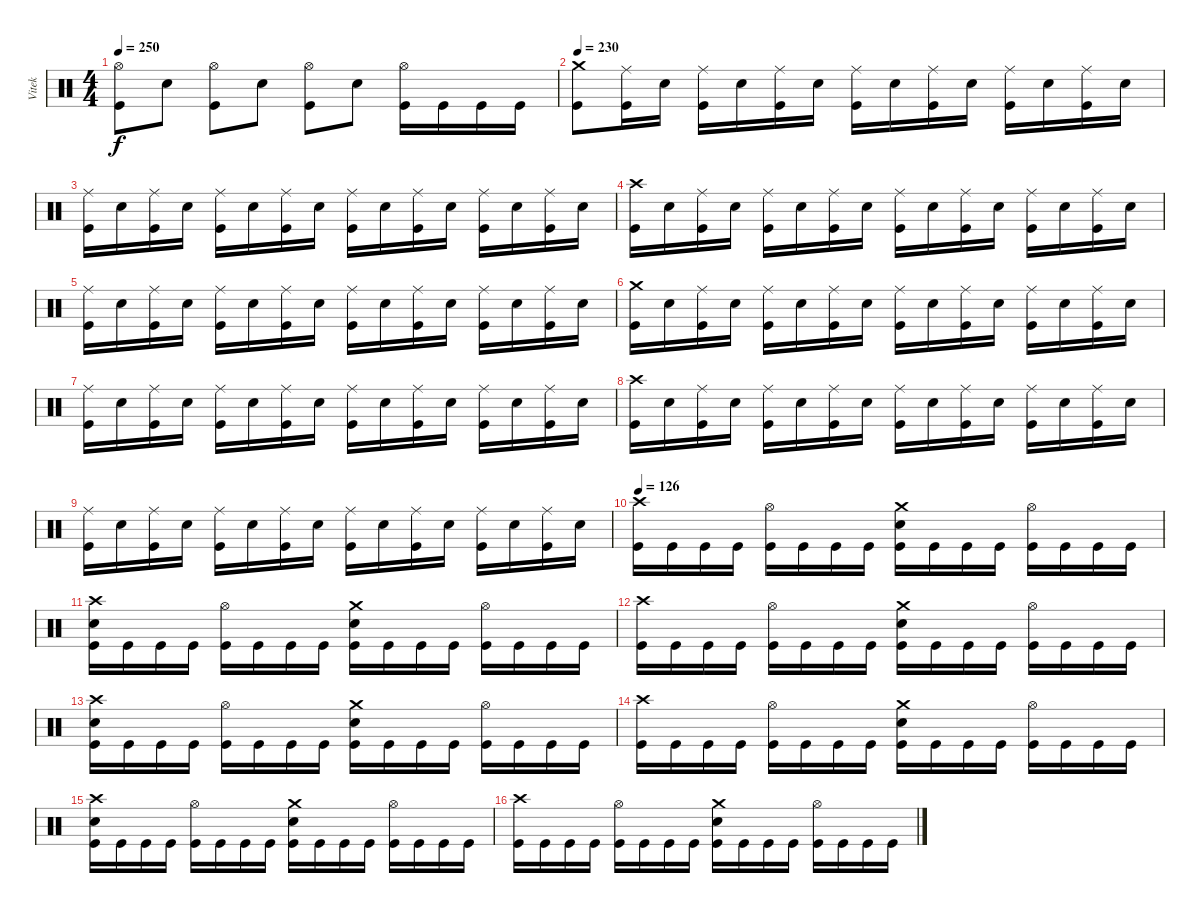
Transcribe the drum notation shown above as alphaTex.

\track ("Vitek" "Vitek") {instrument percussion}
\staff {score}
\articulation defaults
\ts (4 4)
\tempo 250
\clef neutral
\ks c
("Hi-Hat (open)" "Kick (hit)").8{dy f} "Snare (hit) 2".8 ("Hi-Hat (open)" "Kick (hit)").8 "Snare (hit) 2".8 ("Hi-Hat (open)" "Kick (hit)").8 "Snare (hit) 2".8 ("Hi-Hat (open)" "Kick (hit)").16 "Kick (hit)".16 "Kick (hit)".16 "Kick (hit)".16 |
\tempo 230
("Crash medium (hit)" "Kick (hit)").8 ("Ride (middle)" "Kick (hit)").16 "Snare (hit) 2".16 ("Ride (middle)" "Kick (hit)").16 "Snare (hit) 2".16 ("Ride (middle)" "Kick (hit)").16 "Snare (hit) 2".16 ("Ride (middle)" "Kick (hit)").16 "Snare (hit) 2".16 ("Ride (middle)" "Kick (hit)").16 "Snare (hit) 2".16 ("Ride (middle)" "Kick (hit)").16 "Snare (hit) 2".16 ("Ride (middle)" "Kick (hit)").16 "Snare (hit) 2".16 |
("Ride (middle)" "Kick (hit)").16 "Snare (hit) 2".16 ("Ride (middle)" "Kick (hit)").16 "Snare (hit) 2".16 ("Ride (middle)" "Kick (hit)").16 "Snare (hit) 2".16 ("Ride (middle)" "Kick (hit)").16 "Snare (hit) 2".16 ("Ride (middle)" "Kick (hit)").16 "Snare (hit) 2".16 ("Ride (middle)" "Kick (hit)").16 "Snare (hit) 2".16 ("Ride (middle)" "Kick (hit)").16 "Snare (hit) 2".16 ("Ride (middle)" "Kick (hit)").16 "Snare (hit) 2".16 |
("Crash high (hit)" "Kick (hit)").16 "Snare (hit) 2".16 ("Ride (middle)" "Kick (hit)").16 "Snare (hit) 2".16 ("Ride (middle)" "Kick (hit)").16 "Snare (hit) 2".16 ("Ride (middle)" "Kick (hit)").16 "Snare (hit) 2".16 ("Ride (middle)" "Kick (hit)").16 "Snare (hit) 2".16 ("Ride (middle)" "Kick (hit)").16 "Snare (hit) 2".16 ("Ride (middle)" "Kick (hit)").16 "Snare (hit) 2".16 ("Ride (middle)" "Kick (hit)").16 "Snare (hit) 2".16 |
("Ride (middle)" "Kick (hit)").16 "Snare (hit) 2".16 ("Ride (middle)" "Kick (hit)").16 "Snare (hit) 2".16 ("Ride (middle)" "Kick (hit)").16 "Snare (hit) 2".16 ("Ride (middle)" "Kick (hit)").16 "Snare (hit) 2".16 ("Ride (middle)" "Kick (hit)").16 "Snare (hit) 2".16 ("Ride (middle)" "Kick (hit)").16 "Snare (hit) 2".16 ("Ride (middle)" "Kick (hit)").16 "Snare (hit) 2".16 ("Ride (middle)" "Kick (hit)").16 "Snare (hit) 2".16 |
("Crash medium (hit)" "Kick (hit)").16 "Snare (hit) 2".16 ("Ride (middle)" "Kick (hit)").16 "Snare (hit) 2".16 ("Ride (middle)" "Kick (hit)").16 "Snare (hit) 2".16 ("Ride (middle)" "Kick (hit)").16 "Snare (hit) 2".16 ("Ride (middle)" "Kick (hit)").16 "Snare (hit) 2".16 ("Ride (middle)" "Kick (hit)").16 "Snare (hit) 2".16 ("Ride (middle)" "Kick (hit)").16 "Snare (hit) 2".16 ("Ride (middle)" "Kick (hit)").16 "Snare (hit) 2".16 |
("Ride (middle)" "Kick (hit)").16 "Snare (hit) 2".16 ("Ride (middle)" "Kick (hit)").16 "Snare (hit) 2".16 ("Ride (middle)" "Kick (hit)").16 "Snare (hit) 2".16 ("Ride (middle)" "Kick (hit)").16 "Snare (hit) 2".16 ("Ride (middle)" "Kick (hit)").16 "Snare (hit) 2".16 ("Ride (middle)" "Kick (hit)").16 "Snare (hit) 2".16 ("Ride (middle)" "Kick (hit)").16 "Snare (hit) 2".16 ("Ride (middle)" "Kick (hit)").16 "Snare (hit) 2".16 |
("Crash high (hit)" "Kick (hit)").16 "Snare (hit) 2".16 ("Ride (middle)" "Kick (hit)").16 "Snare (hit) 2".16 ("Ride (middle)" "Kick (hit)").16 "Snare (hit) 2".16 ("Ride (middle)" "Kick (hit)").16 "Snare (hit) 2".16 ("Ride (middle)" "Kick (hit)").16 "Snare (hit) 2".16 ("Ride (middle)" "Kick (hit)").16 "Snare (hit) 2".16 ("Ride (middle)" "Kick (hit)").16 "Snare (hit) 2".16 ("Ride (middle)" "Kick (hit)").16 "Snare (hit) 2".16 |
("Ride (middle)" "Kick (hit)").16 "Snare (hit) 2".16 ("Ride (middle)" "Kick (hit)").16 "Snare (hit) 2".16 ("Ride (middle)" "Kick (hit)").16 "Snare (hit) 2".16 ("Ride (middle)" "Kick (hit)").16 "Snare (hit) 2".16 ("Ride (middle)" "Kick (hit)").16 "Snare (hit) 2".16 ("Ride (middle)" "Kick (hit)").16 "Snare (hit) 2".16 ("Ride (middle)" "Kick (hit)").16 "Snare (hit) 2".16 ("Ride (middle)" "Kick (hit)").16 "Snare (hit) 2".16 |
\tempo 126
("Crash high (hit)" "Kick (hit)").16 "Kick (hit)".16 "Kick (hit)".16 "Kick (hit)".16 ("Hi-Hat (open)" "Kick (hit)").16 "Kick (hit)".16 "Kick (hit)".16 "Kick (hit)".16 ("Crash medium (hit)" "Snare (hit) 2" "Kick (hit)").16 "Kick (hit)".16 "Kick (hit)".16 "Kick (hit)".16 ("Hi-Hat (open)" "Kick (hit)").16 "Kick (hit)".16 "Kick (hit)".16 "Kick (hit)".16 |
("Crash high (hit)" "Snare (hit) 2" "Kick (hit)").16 "Kick (hit)".16 "Kick (hit)".16 "Kick (hit)".16 ("Hi-Hat (open)" "Kick (hit)").16 "Kick (hit)".16 "Kick (hit)".16 "Kick (hit)".16 ("Crash medium (hit)" "Snare (hit) 2" "Kick (hit)").16 "Kick (hit)".16 "Kick (hit)".16 "Kick (hit)".16 ("Hi-Hat (open)" "Kick (hit)").16 "Kick (hit)".16 "Kick (hit)".16 "Kick (hit)".16 |
("Crash high (hit)" "Kick (hit)").16 "Kick (hit)".16 "Kick (hit)".16 "Kick (hit)".16 ("Hi-Hat (open)" "Kick (hit)").16 "Kick (hit)".16 "Kick (hit)".16 "Kick (hit)".16 ("Crash medium (hit)" "Snare (hit) 2" "Kick (hit)").16 "Kick (hit)".16 "Kick (hit)".16 "Kick (hit)".16 ("Hi-Hat (open)" "Kick (hit)").16 "Kick (hit)".16 "Kick (hit)".16 "Kick (hit)".16 |
("Crash high (hit)" "Snare (hit) 2" "Kick (hit)").16 "Kick (hit)".16 "Kick (hit)".16 "Kick (hit)".16 ("Hi-Hat (open)" "Kick (hit)").16 "Kick (hit)".16 "Kick (hit)".16 "Kick (hit)".16 ("Crash medium (hit)" "Snare (hit) 2" "Kick (hit)").16 "Kick (hit)".16 "Kick (hit)".16 "Kick (hit)".16 ("Hi-Hat (open)" "Kick (hit)").16 "Kick (hit)".16 "Kick (hit)".16 "Kick (hit)".16 |
("Crash high (hit)" "Kick (hit)").16 "Kick (hit)".16 "Kick (hit)".16 "Kick (hit)".16 ("Hi-Hat (open)" "Kick (hit)").16 "Kick (hit)".16 "Kick (hit)".16 "Kick (hit)".16 ("Crash medium (hit)" "Snare (hit) 2" "Kick (hit)").16 "Kick (hit)".16 "Kick (hit)".16 "Kick (hit)".16 ("Hi-Hat (open)" "Kick (hit)").16 "Kick (hit)".16 "Kick (hit)".16 "Kick (hit)".16 |
("Crash high (hit)" "Snare (hit) 2" "Kick (hit)").16 "Kick (hit)".16 "Kick (hit)".16 "Kick (hit)".16 ("Hi-Hat (open)" "Kick (hit)").16 "Kick (hit)".16 "Kick (hit)".16 "Kick (hit)".16 ("Crash medium (hit)" "Snare (hit) 2" "Kick (hit)").16 "Kick (hit)".16 "Kick (hit)".16 "Kick (hit)".16 ("Hi-Hat (open)" "Kick (hit)").16 "Kick (hit)".16 "Kick (hit)".16 "Kick (hit)".16 |
("Crash high (hit)" "Kick (hit)").16 "Kick (hit)".16 "Kick (hit)".16 "Kick (hit)".16 ("Hi-Hat (open)" "Kick (hit)").16 "Kick (hit)".16 "Kick (hit)".16 "Kick (hit)".16 ("Crash medium (hit)" "Snare (hit) 2" "Kick (hit)").16 "Kick (hit)".16 "Kick (hit)".16 "Kick (hit)".16 ("Hi-Hat (open)" "Kick (hit)").16 "Kick (hit)".16 "Kick (hit)".16 "Kick (hit)".16
